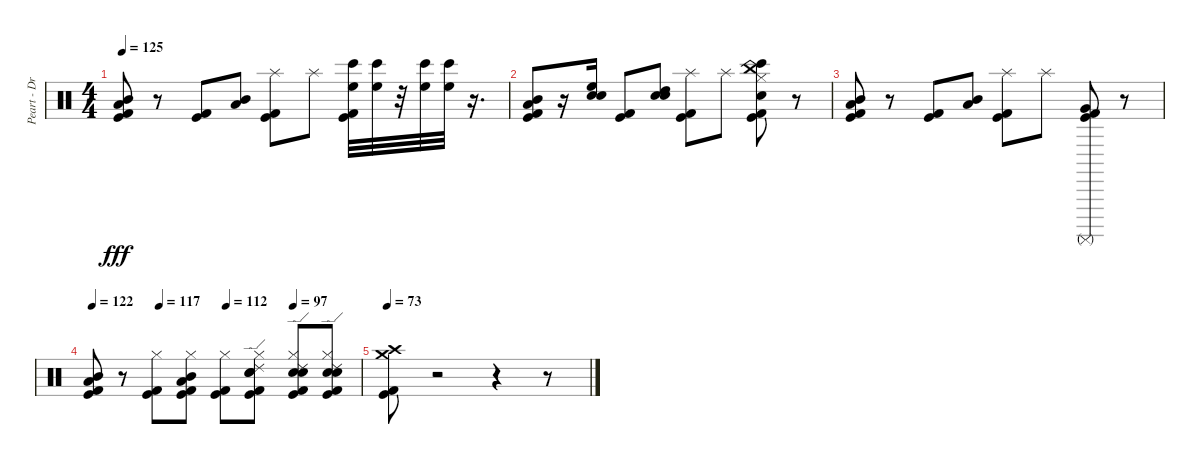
\track ("Peart - Drums" "Peart - Dr") {instrument percussion}
\staff {score}
\articulation defaults
\ts (4 4)
\tempo 125
\clef neutral
\ks c
("Kick (hit)" "Low Tom (hit)" "Kick (hit) 2" "Mid Tom (hit)").8{dy fff} r.8 ("Kick (hit) 2" "Kick (hit)").8 ("Low Tom (hit)" "Mid Tom (hit)").8 ("Kick (hit) 2" "Splash (hit)" "Kick (hit)").8 "Splash (hit)".8 ("Kick (hit) 2" "Kick (hit)" "High Floor Tom (hit)" "Bongo High (hit)").32 ("Bongo High (hit)" "High Floor Tom (hit)").32 r.32 ("Bongo High (hit)" "High Floor Tom (hit)").32 ("Bongo High (hit)" "High Floor Tom (hit)").32 r.16{d} |
("Kick (hit) 2" "Low Tom (hit)" "Kick (hit)" "Mid Tom (hit)").8 r.16 ("Electric Snare (hit)" "Snare (hit) 2" "High Floor Tom (hit)").16 ("Kick (hit) 2" "Kick (hit)").8 ("Electric Snare (hit)" "Snare (hit) 2" "High Tom (hit)").8 ("Kick (hit) 2" "Splash (hit)" "Kick (hit)").8 "Splash (hit)".8 ("Kick (hit) 2" "Kick (hit)" "Bongo High (hit)" "Hi-Hat (closed)" "Hand Clap (hit)" "China (hit)").8 r.8 |
("Kick (hit)" "Low Tom (hit)" "Kick (hit) 2" "Mid Tom (hit)").8 r.8 ("Kick (hit) 2" "Kick (hit)").8 ("Low Tom (hit)" "Mid Tom (hit)").8 ("Kick (hit) 2" "Splash (hit)" "Kick (hit)").8 "Splash (hit)".8 ("Kick (hit) 2" "Very Low Tom (hit)" "Kick (hit)" "Surdo (mute)").8 r.8 |
\tempo 122
\tempo (117 0.25)
\tempo (112 0.5)
\tempo (97 0.75)
("Kick (hit) 2" "Low Tom (hit)" "Kick (hit)" "Mid Tom (hit)").8 r.8 ("Kick (hit) 2" "Kick (hit)" "Hi-Hat (closed)").8 ("Low Tom (hit)" "Hi-Hat (closed)" "Kick (hit) 2" "Kick (hit)" "Mid Tom (hit)").8 ("Kick (hit) 2" "Kick (hit)" "Hi-Hat (closed)").8 ("Ride (edge) 2" "Hi-Hat (closed)" "Electric Snare (hit)" "Snare (hit) 2" "Kick (hit) 2" "Kick (hit)").8 ("Hi-Hat (closed)" "Kick (hit)" "Electric Snare (hit)" "Kick (hit) 2" "Ride (edge) 2" "Snare (hit) 2").8 ("Ride (edge) 2" "Hi-Hat (closed)" "Electric Snare (hit)" "Snare (hit) 2" "Kick (hit) 2" "Kick (hit)").8 |
\tempo 73
("Crash high (hit)" "Crash medium (hit)" "Kick (hit) 2" "Kick (hit)").8 r.2 r.4 r.8
